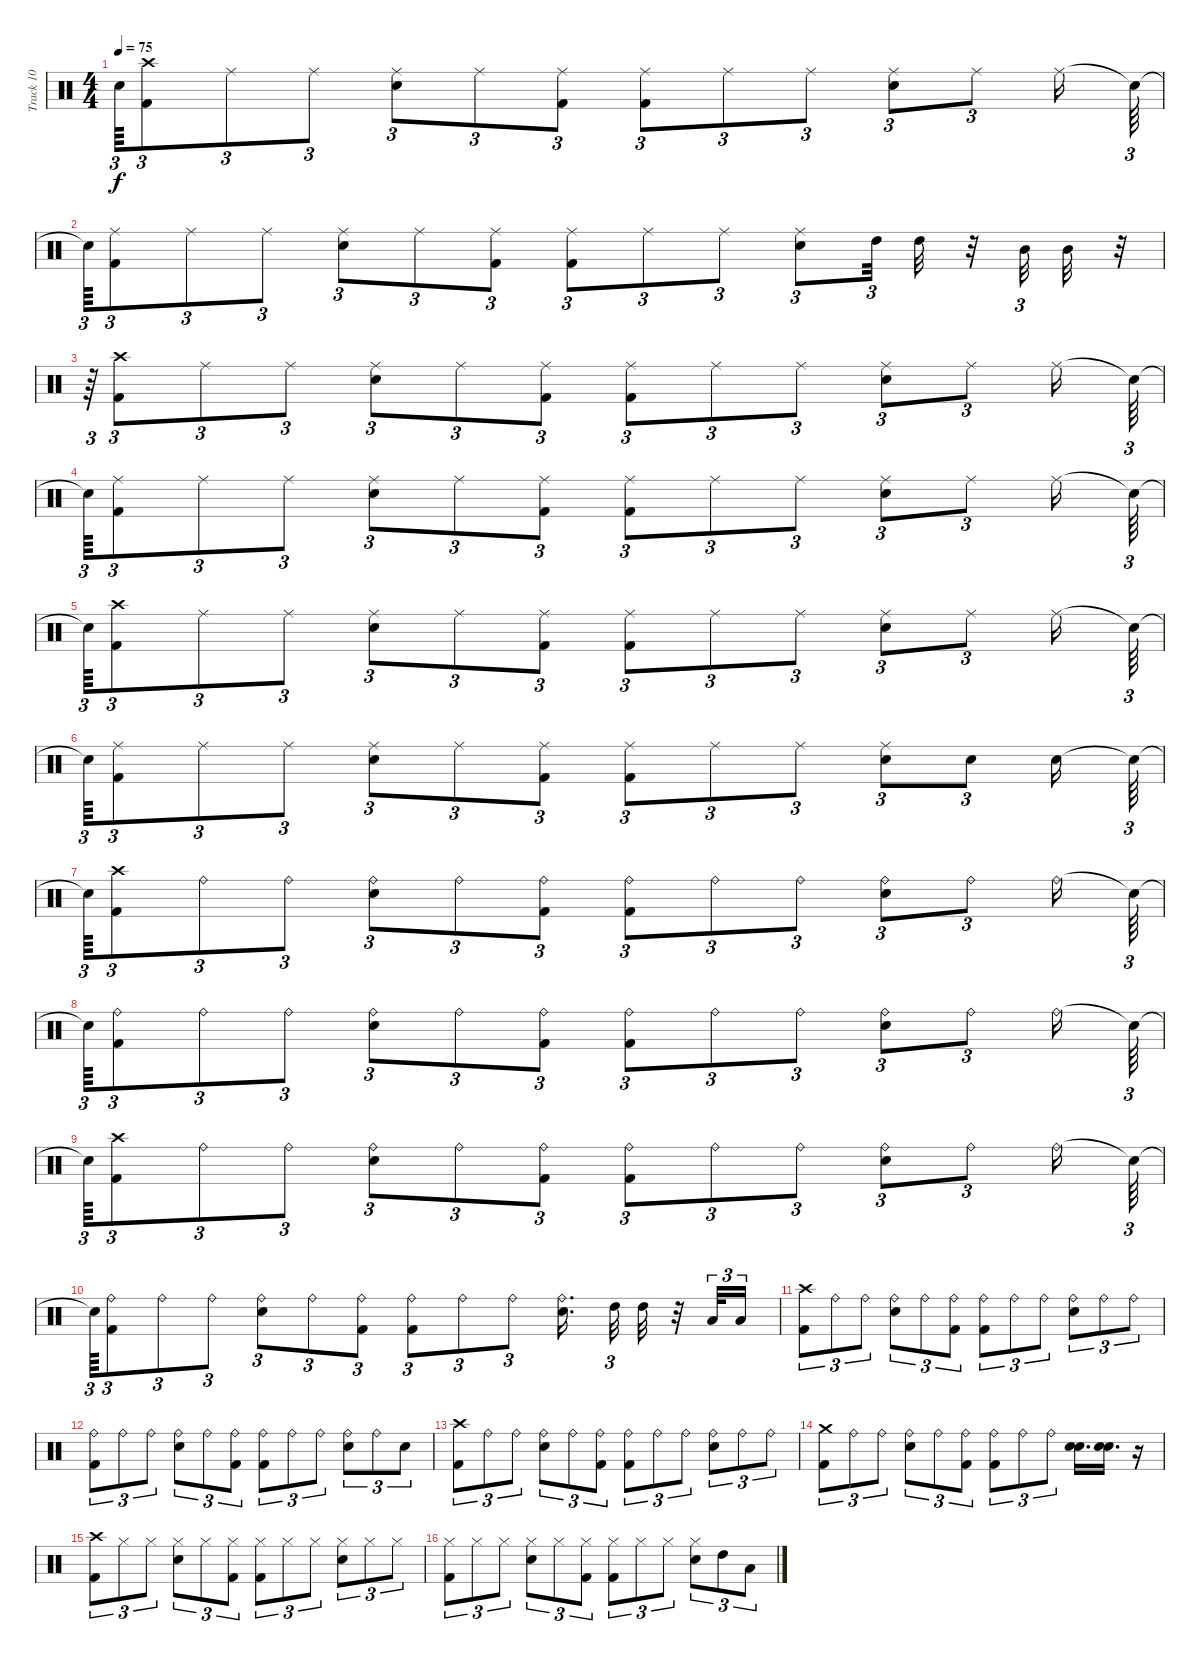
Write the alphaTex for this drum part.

\track ("Track 10" "Track 10") {instrument percussion}
\staff {score}
\articulation defaults
\ts (4 4)
\tempo 75
\clef neutral
\ks c "Snare (hit)"{t}.64{tu (3 2) dy f}
("Crash high (hit)" "Kick (hit) 2").8{tu (3 2)} "Ride (middle)".8{tu (3 2)} "Ride (middle)".8{tu (3 2)} ("Ride (middle)" "Snare (hit) 2").8{tu (3 2)} "Ride (middle)".8{tu (3 2)} ("Ride (middle)" "Kick (hit) 2").8{tu (3 2)} ("Ride (middle)" "Kick (hit) 2").8{tu (3 2)} "Ride (middle)".8{tu (3 2)} "Ride (middle)".8{tu (3 2)} ("Ride (middle)" "Snare (hit) 2").8{tu (3 2)} "Ride (middle)".8{tu (3 2)} "Ride (middle)".16 "Snare (hit)"{t}.64{tu (3 2)} |
"Snare (hit)"{t}.64{tu (3 2)} ("Ride (middle)" "Kick (hit) 2").8{tu (3 2)} "Ride (middle)".8{tu (3 2)} "Ride (middle)".8{tu (3 2)} ("Ride (middle)" "Snare (hit) 2").8{tu (3 2)} "Ride (middle)".8{tu (3 2)} ("Ride (middle)" "Kick (hit) 2").8{tu (3 2)} ("Ride (middle)" "Kick (hit) 2").8{tu (3 2)} "Ride (middle)".8{tu (3 2)} "Ride (middle)".8{tu (3 2)} ("Ride (middle)" "Snare (hit) 2").8{tu (3 2)} "High Tom (hit)".32{tu (3 2)} "High Tom (hit)".32 r.32 "Mid Tom (hit)".32{tu (3 2)} "Mid Tom (hit)".32 r.32{tu (3 2)} |
r.64{tu (3 2)} ("Crash high (hit)" "Kick (hit) 2").8{tu (3 2)} "Ride (middle)".8{tu (3 2)} "Ride (middle)".8{tu (3 2)} ("Ride (middle)" "Snare (hit) 2").8{tu (3 2)} "Ride (middle)".8{tu (3 2)} ("Ride (middle)" "Kick (hit) 2").8{tu (3 2)} ("Ride (middle)" "Kick (hit) 2").8{tu (3 2)} "Ride (middle)".8{tu (3 2)} "Ride (middle)".8{tu (3 2)} ("Ride (middle)" "Snare (hit) 2").8{tu (3 2)} "Ride (middle)".8{tu (3 2)} "Ride (middle)".16 "Snare (hit)"{t}.64{tu (3 2)} |
"Snare (hit)"{t}.64{tu (3 2)} ("Ride (middle)" "Kick (hit) 2").8{tu (3 2)} "Ride (middle)".8{tu (3 2)} "Ride (middle)".8{tu (3 2)} ("Ride (middle)" "Snare (hit) 2").8{tu (3 2)} "Ride (middle)".8{tu (3 2)} ("Ride (middle)" "Kick (hit) 2").8{tu (3 2)} ("Ride (middle)" "Kick (hit) 2").8{tu (3 2)} "Ride (middle)".8{tu (3 2)} "Ride (middle)".8{tu (3 2)} ("Ride (middle)" "Snare (hit) 2").8{tu (3 2)} "Ride (middle)".8{tu (3 2)} "Ride (middle)".16 "Snare (hit)"{t}.64{tu (3 2)} |
"Snare (hit)"{t}.64{tu (3 2)} ("Crash high (hit)" "Kick (hit) 2").8{tu (3 2)} "Ride (middle)".8{tu (3 2)} "Ride (middle)".8{tu (3 2)} ("Ride (middle)" "Snare (hit) 2").8{tu (3 2)} "Ride (middle)".8{tu (3 2)} ("Ride (middle)" "Kick (hit) 2").8{tu (3 2)} ("Ride (middle)" "Kick (hit) 2").8{tu (3 2)} "Ride (middle)".8{tu (3 2)} "Ride (middle)".8{tu (3 2)} ("Ride (middle)" "Snare (hit) 2").8{tu (3 2)} "Ride (middle)".8{tu (3 2)} "Ride (middle)".16 "Snare (hit)"{t}.64{tu (3 2)} |
"Snare (hit)"{t}.64{tu (3 2)} ("Ride (middle)" "Kick (hit) 2").8{tu (3 2)} "Ride (middle)".8{tu (3 2)} "Ride (middle)".8{tu (3 2)} ("Ride (middle)" "Snare (hit) 2").8{tu (3 2)} "Ride (middle)".8{tu (3 2)} ("Ride (middle)" "Kick (hit) 2").8{tu (3 2)} ("Ride (middle)" "Kick (hit) 2").8{tu (3 2)} "Ride (middle)".8{tu (3 2)} "Ride (middle)".8{tu (3 2)} ("Snare (hit) 2" "Ride (middle)").8{tu (3 2)} "Snare (hit) 2".8{tu (3 2)} "Snare (hit) 2".16 "Snare (hit)"{t}.64{tu (3 2)} |
"Snare (hit)"{t}.64{tu (3 2)} ("Kick (hit) 2" "Crash high (hit)").8{tu (3 2)} "Ride (bell)".8{tu (3 2)} "Ride (bell)".8{tu (3 2)} ("Ride (bell)" "Snare (hit) 2").8{tu (3 2)} "Ride (bell)".8{tu (3 2)} ("Ride (bell)" "Kick (hit) 2").8{tu (3 2)} ("Ride (bell)" "Kick (hit) 2").8{tu (3 2)} "Ride (bell)".8{tu (3 2)} "Ride (bell)".8{tu (3 2)} ("Ride (bell)" "Snare (hit) 2").8{tu (3 2)} "Ride (bell)".8{tu (3 2)} "Ride (bell)".16 "Snare (hit)"{t}.64{tu (3 2)} |
"Snare (hit)"{t}.64{tu (3 2)} ("Ride (bell)" "Kick (hit) 2").8{tu (3 2)} "Ride (bell)".8{tu (3 2)} "Ride (bell)".8{tu (3 2)} ("Ride (bell)" "Snare (hit) 2").8{tu (3 2)} "Ride (bell)".8{tu (3 2)} ("Ride (bell)" "Kick (hit) 2").8{tu (3 2)} ("Ride (bell)" "Kick (hit) 2").8{tu (3 2)} "Ride (bell)".8{tu (3 2)} "Ride (bell)".8{tu (3 2)} ("Ride (bell)" "Snare (hit) 2").8{tu (3 2)} "Ride (bell)".8{tu (3 2)} "Ride (bell)".16 "Snare (hit)"{t}.64{tu (3 2)} |
"Snare (hit)"{t}.64{tu (3 2)} ("Crash high (hit)" "Kick (hit) 2").8{tu (3 2)} "Ride (bell)".8{tu (3 2)} "Ride (bell)".8{tu (3 2)} ("Ride (bell)" "Snare (hit) 2").8{tu (3 2)} "Ride (bell)".8{tu (3 2)} ("Ride (bell)" "Kick (hit) 2").8{tu (3 2)} ("Ride (bell)" "Kick (hit) 2").8{tu (3 2)} "Ride (bell)".8{tu (3 2)} "Ride (bell)".8{tu (3 2)} ("Ride (bell)" "Snare (hit) 2").8{tu (3 2)} "Ride (bell)".8{tu (3 2)} "Ride (bell)".16 "Snare (hit)"{t}.64{tu (3 2)} |
"Snare (hit)"{t}.64{tu (3 2)} ("Ride (bell)" "Kick (hit) 2").8{tu (3 2)} "Ride (bell)".8{tu (3 2)} "Ride (bell)".8{tu (3 2)} ("Ride (bell)" "Snare (hit) 2").8{tu (3 2)} "Ride (bell)".8{tu (3 2)} ("Ride (bell)" "Kick (hit) 2").8{tu (3 2)} ("Ride (bell)" "Kick (hit) 2").8{tu (3 2)} "Ride (bell)".8{tu (3 2)} "Ride (bell)".8{tu (3 2)} ("Ride (bell)" "Snare (hit) 2").16{d beam splitsecondary} "High Tom (hit)".32{tu (3 2)} "High Tom (hit)".32 r.32 "Low Tom (hit)".32{tu (3 2)} "Low Tom (hit)".16{tu (3 2)} |
("Crash high (hit)" "Kick (hit) 2").8{tu (3 2)} "Ride (bell)".8{tu (3 2)} "Ride (bell)".8{tu (3 2)} ("Ride (bell)" "Snare (hit) 2").8{tu (3 2)} "Ride (bell)".8{tu (3 2)} ("Ride (bell)" "Kick (hit) 2").8{tu (3 2)} ("Ride (bell)" "Kick (hit) 2").8{tu (3 2)} "Ride (bell)".8{tu (3 2)} "Ride (bell)".8{tu (3 2)} ("Ride (bell)" "Snare (hit) 2").8{tu (3 2)} "Ride (bell)".8{tu (3 2)} "Ride (bell)".8{tu (3 2)} |
("Ride (bell)" "Kick (hit) 2").8{tu (3 2)} "Ride (bell)".8{tu (3 2)} "Ride (bell)".8{tu (3 2)} ("Ride (bell)" "Snare (hit) 2").8{tu (3 2)} "Ride (bell)".8{tu (3 2)} ("Ride (bell)" "Kick (hit) 2").8{tu (3 2)} ("Ride (bell)" "Kick (hit) 2").8{tu (3 2)} "Ride (bell)".8{tu (3 2)} "Ride (bell)".8{tu (3 2)} ("Ride (bell)" "Snare (hit) 2").8{tu (3 2)} "Ride (bell)".8{tu (3 2)} "Snare (hit) 2".8{tu (3 2)} |
("Crash high (hit)" "Kick (hit) 2").8{tu (3 2)} "Ride (bell)".8{tu (3 2)} "Ride (bell)".8{tu (3 2)} ("Ride (bell)" "Snare (hit) 2").8{tu (3 2)} "Ride (bell)".8{tu (3 2)} ("Ride (bell)" "Kick (hit) 2").8{tu (3 2)} ("Ride (bell)" "Kick (hit) 2").8{tu (3 2)} "Ride (bell)".8{tu (3 2)} "Ride (bell)".8{tu (3 2)} ("Ride (bell)" "Snare (hit) 2").8{tu (3 2)} "Ride (bell)".8{tu (3 2)} "Ride (bell)".8{tu (3 2)} |
("Crash medium (hit)" "Kick (hit) 2").8{tu (3 2)} "Ride (bell)".8{tu (3 2)} "Ride (bell)".8{tu (3 2)} ("Ride (bell)" "Snare (hit) 2").8{tu (3 2)} "Ride (bell)".8{tu (3 2)} ("Ride (bell)" "Kick (hit) 2").8{tu (3 2)} ("Ride (bell)" "Kick (hit) 2").8{tu (3 2)} "Ride (bell)".8{tu (3 2)} "Ride (bell)".8{tu (3 2)} ("Snare (hit) 2" "Snare (hit) 2").16{d} ("Snare (hit) 2" "Snare (hit) 2").16{d} r.16 |
("Kick (hit) 2" "Crash high (hit)").8{tu (3 2)} "Hi-Hat (closed)".8{tu (3 2)} "Hi-Hat (closed)".8{tu (3 2)} ("Snare (hit) 2" "Hi-Hat (closed)").8{tu (3 2)} "Hi-Hat (closed)".8{tu (3 2)} ("Kick (hit) 2" "Hi-Hat (closed)").8{tu (3 2)} ("Kick (hit) 2" "Hi-Hat (closed)").8{tu (3 2)} "Hi-Hat (closed)".8{tu (3 2)} "Hi-Hat (closed)".8{tu (3 2)} ("Snare (hit) 2" "Hi-Hat (closed)").8{tu (3 2)} "Hi-Hat (closed)".8{tu (3 2)} "Hi-Hat (closed)".8{tu (3 2)} |
("Kick (hit) 2" "Hi-Hat (closed)").8{tu (3 2)} "Hi-Hat (closed)".8{tu (3 2)} "Hi-Hat (closed)".8{tu (3 2)} ("Snare (hit) 2" "Hi-Hat (closed)").8{tu (3 2)} "Hi-Hat (closed)".8{tu (3 2)} ("Kick (hit) 2" "Hi-Hat (closed)").8{tu (3 2)} ("Kick (hit) 2" "Hi-Hat (closed)").8{tu (3 2)} "Hi-Hat (closed)".8{tu (3 2)} "Hi-Hat (closed)".8{tu (3 2)} ("Hi-Hat (closed)" "Snare (hit) 2").8{tu (3 2)} "High Tom (hit)".8{tu (3 2)} "Low Tom (hit)".8{tu (3 2)}
